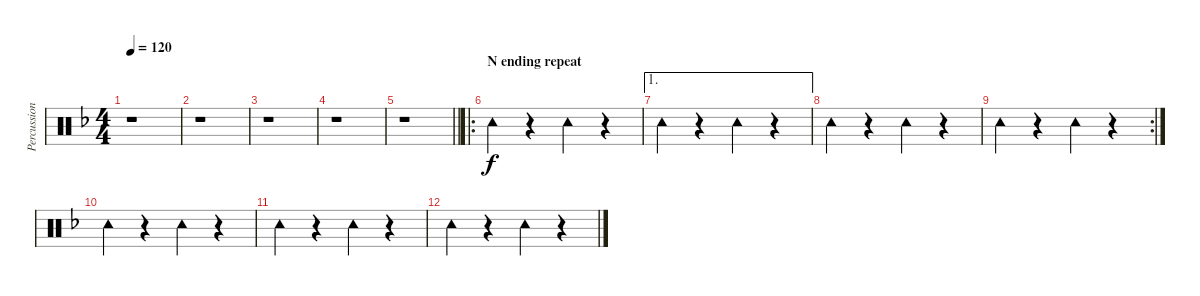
\track ("Percussion hand" "Percussion") {instrument percussion}
\staff {score}
\articulation defaults
\ts (4 4)
\tempo 120
\clef neutral
\ks f
r.1{dy f} |
r.1 |
r.1 |
r.1 |
\barLineRight lightlight
r.1 |
\ro
\section ("" "N ending repeat")
"Tambourine (hit)".4 r.4 "Tambourine (hit)".4 r.4 |
\ae 1 "Tambourine (hit)".4
r.4 "Tambourine (hit)".4 r.4 |
"Tambourine (hit)".4 r.4 "Tambourine (hit)".4 r.4 |
\rc 2 "Tambourine (hit)".4
r.4 "Tambourine (hit)".4 r.4 |
"Tambourine (hit)".4 r.4 "Tambourine (hit)".4 r.4 |
"Tambourine (hit)".4 r.4 "Tambourine (hit)".4 r.4 |
"Tambourine (hit)".4 r.4 "Tambourine (hit)".4 r.4
